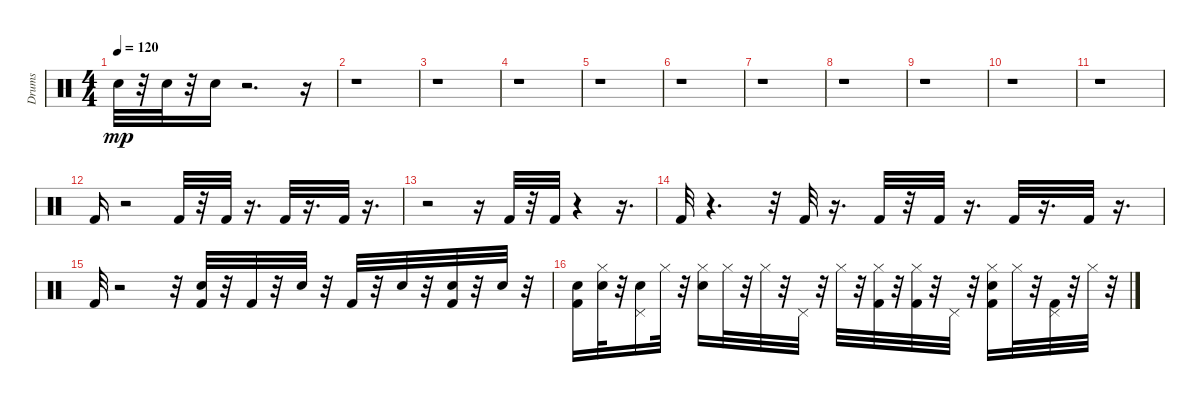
\track ("Drums" "Drums") {instrument percussion}
\staff {score}
\articulation defaults
\ts (4 4)
\tempo 120
\clef neutral
\ks c "Hand Clap (hit)".32{dy mp}
r.32 "Hand Clap (hit)".32 r.32 "Hand Clap (hit)".16 r.2{d} r.16 |
r.1 |
r.1 |
r.1 |
r.1 |
r.1 |
r.1 |
r.1 |
r.1 |
r.1 |
r.1 |
"Kick (hit) 2".16 r.2 "Kick (hit) 2".32 r.32 "Kick (hit) 2".32 r.16{d} "Kick (hit) 2".32 r.16{d} "Kick (hit) 2".32 r.16{d} |
r.2 r.16 "Kick (hit) 2".32 r.32 "Kick (hit) 2".32 r.4 r.16{d} |
"Kick (hit) 2".32 r.4{d} r.32 "Kick (hit) 2".32 r.16{d} "Kick (hit) 2".32 r.32 "Kick (hit) 2".32 r.16{d} "Kick (hit) 2".32 r.16{d} "Kick (hit) 2".32 r.16{d} |
"Kick (hit) 2".32 r.2 r.32 ("Kick (hit) 2" "Hand Clap (hit)").32 r.32 "Kick (hit) 2".32 r.32 "Hand Clap (hit)".32 r.32 "Kick (hit) 2".32 r.32 "Hand Clap (hit)".32 r.32 ("Kick (hit) 2" "Hand Clap (hit)").32 r.32 "Hand Clap (hit)".32 r.32 |
("Kick (hit) 2" "Hand Clap (hit)").16 ("Hi-Hat (closed)" "Hand Clap (hit)").32 r.32 ("Pedal Hi-Hat (hit)" "Hand Clap (hit)").16 "Hi-Hat (closed)".32 r.32 ("Hi-Hat (closed)" "Snare (hit) 2").16 "Hi-Hat (closed)".32 r.32 "Hi-Hat (closed)".32 r.32 "Pedal Hi-Hat (hit)".32 r.32 "Hi-Hat (closed)".32 r.32 ("Hi-Hat (closed)" "Kick (hit) 2").32 r.32 ("Hi-Hat (closed)" "Kick (hit) 2").32 r.32 "Pedal Hi-Hat (hit)".32 r.32 ("Hi-Hat (closed)" "Snare (hit) 2" "Kick (hit) 2").16 "Hi-Hat (closed)".32 r.32 ("Pedal Hi-Hat (hit)" "Kick (hit) 2").32 r.32 "Hi-Hat (closed)".32 r.32
